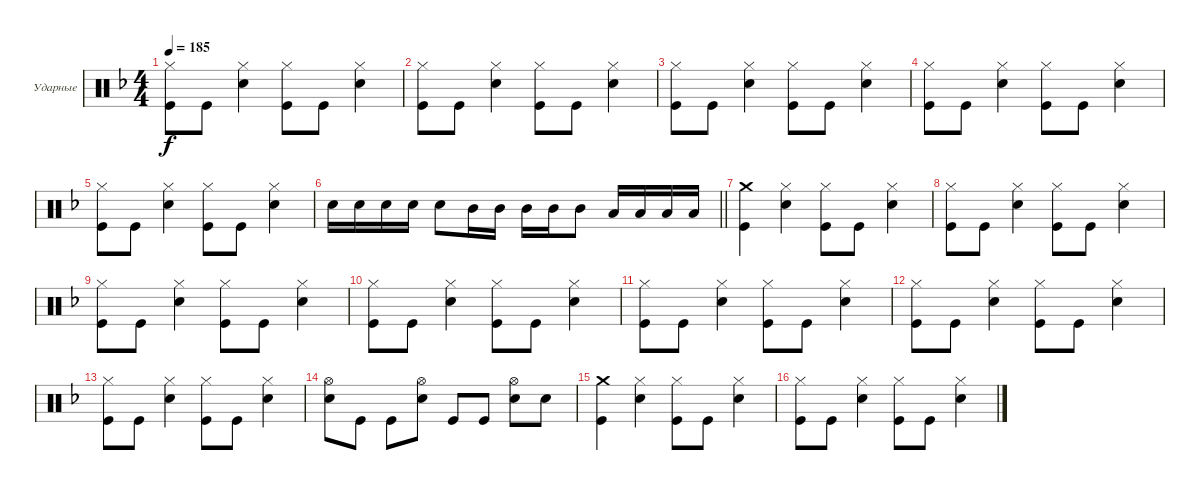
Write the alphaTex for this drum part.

\bracketExtendMode groupsimilarinstruments
\firstSystemTrackNameOrientation horizontal
\otherSystemsTrackNameOrientation horizontal
\track ("Александр Львов" "Ударные") {instrument percussion}
\staff {score}
\articulation defaults
\ts (4 4)
\tempo 185
\clef neutral
\ks dminor
("Kick (hit)" "Hi-Hat (closed)").8{dy f} "Kick (hit)".8 ("Snare (hit) 2" "Hi-Hat (closed)").4 ("Kick (hit)" "Hi-Hat (closed)").8 "Kick (hit)".8 ("Hi-Hat (closed)" "Snare (hit) 2").4 |
("Kick (hit)" "Hi-Hat (closed)").8 "Kick (hit)".8 ("Snare (hit) 2" "Hi-Hat (closed)").4 ("Kick (hit)" "Hi-Hat (closed)").8 "Kick (hit)".8 ("Hi-Hat (closed)" "Snare (hit) 2").4 |
("Kick (hit)" "Hi-Hat (closed)").8 "Kick (hit)".8 ("Snare (hit) 2" "Hi-Hat (closed)").4 ("Kick (hit)" "Hi-Hat (closed)").8 "Kick (hit)".8 ("Hi-Hat (closed)" "Snare (hit) 2").4 |
("Kick (hit)" "Hi-Hat (closed)").8 "Kick (hit)".8 ("Snare (hit) 2" "Hi-Hat (closed)").4 ("Kick (hit)" "Hi-Hat (closed)").8 "Kick (hit)".8 ("Hi-Hat (closed)" "Snare (hit) 2").4 |
("Kick (hit)" "Hi-Hat (closed)").8 "Kick (hit)".8 ("Snare (hit) 2" "Hi-Hat (closed)").4 ("Kick (hit)" "Hi-Hat (closed)").8 "Kick (hit)".8 ("Hi-Hat (closed)" "Snare (hit) 2").4 |
\barLineRight lightlight "Snare (hit) 2".16 "Snare (hit) 2".16 "Snare (hit) 2".16 "Snare (hit) 2".16 "Snare (hit) 2".8 "Mid Tom (hit)".16 "Mid Tom (hit)".16 "Mid Tom (hit)".16 "Mid Tom (hit)".16 "Mid Tom (hit)".8 "Low Tom (hit)".16 "Low Tom (hit)".16 "Low Tom (hit)".16 "Low Tom (hit)".16
|
("Kick (hit)" "Crash medium (hit)").4 ("Snare (hit) 2" "Hi-Hat (closed)").4 ("Kick (hit)" "Hi-Hat (closed)").8 "Kick (hit)".8 ("Hi-Hat (closed)" "Snare (hit) 2").4 |
("Kick (hit)" "Hi-Hat (closed)").8 "Kick (hit)".8 ("Snare (hit) 2" "Hi-Hat (closed)").4 ("Kick (hit)" "Hi-Hat (closed)").8 "Kick (hit)".8 ("Hi-Hat (closed)" "Snare (hit) 2").4 |
("Kick (hit)" "Hi-Hat (closed)").8 "Kick (hit)".8 ("Snare (hit) 2" "Hi-Hat (closed)").4 ("Kick (hit)" "Hi-Hat (closed)").8 "Kick (hit)".8 ("Hi-Hat (closed)" "Snare (hit) 2").4 |
("Kick (hit)" "Hi-Hat (closed)").8 "Kick (hit)".8 ("Snare (hit) 2" "Hi-Hat (closed)").4 ("Kick (hit)" "Hi-Hat (closed)").8 "Kick (hit)".8 ("Hi-Hat (closed)" "Snare (hit) 2").4 |
("Kick (hit)" "Hi-Hat (closed)").8 "Kick (hit)".8 ("Snare (hit) 2" "Hi-Hat (closed)").4 ("Kick (hit)" "Hi-Hat (closed)").8 "Kick (hit)".8 ("Hi-Hat (closed)" "Snare (hit) 2").4 |
("Kick (hit)" "Hi-Hat (closed)").8 "Kick (hit)".8 ("Snare (hit) 2" "Hi-Hat (closed)").4 ("Kick (hit)" "Hi-Hat (closed)").8 "Kick (hit)".8 ("Hi-Hat (closed)" "Snare (hit) 2").4 |
("Kick (hit)" "Hi-Hat (closed)").8 "Kick (hit)".8 ("Snare (hit) 2" "Hi-Hat (closed)").4 ("Kick (hit)" "Hi-Hat (closed)").8 "Kick (hit)".8 ("Hi-Hat (closed)" "Snare (hit) 2").4 |
("Snare (hit) 2" "Hi-Hat (open)").8 "Kick (hit)".8 "Kick (hit)".8 ("Snare (hit) 2" "Hi-Hat (open)").8 "Kick (hit)".8 "Kick (hit)".8 ("Snare (hit) 2" "Hi-Hat (open)").8 "Snare (hit) 2".8 |
("Kick (hit)" "Crash medium (hit)").4 ("Snare (hit) 2" "Hi-Hat (closed)").4 ("Kick (hit)" "Hi-Hat (closed)").8 "Kick (hit)".8 ("Hi-Hat (closed)" "Snare (hit) 2").4 |
("Kick (hit)" "Hi-Hat (closed)").8 "Kick (hit)".8 ("Snare (hit) 2" "Hi-Hat (closed)").4 ("Kick (hit)" "Hi-Hat (closed)").8 "Kick (hit)".8 ("Hi-Hat (closed)" "Snare (hit) 2").4
